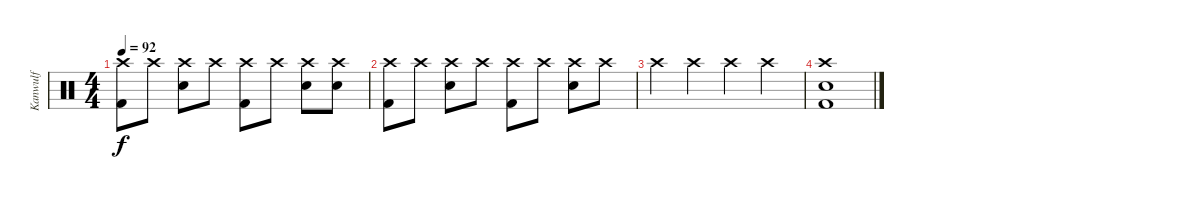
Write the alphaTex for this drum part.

\track ("Kanwulf" "Kanwulf") {instrument percussion}
\staff {score}
\articulation defaults
\ts (4 4)
\tempo 92
\clef neutral
\ks c
("Crash high (hit)" "Kick (hit) 2").8{dy f} "Crash high (hit)".8 ("Crash high (hit)" "Electric Snare (hit)").8 "Crash high (hit)".8 ("Crash high (hit)" "Kick (hit) 2").8 "Crash high (hit)".8 ("Crash high (hit)" "Electric Snare (hit)").8 ("Crash high (hit)" "Electric Snare (hit)").8 |
("Crash high (hit)" "Kick (hit) 2").8 "Crash high (hit)".8 ("Crash high (hit)" "Electric Snare (hit)").8 "Crash high (hit)".8 ("Crash high (hit)" "Kick (hit) 2").8 "Crash high (hit)".8 ("Crash high (hit)" "Electric Snare (hit)").8 "Crash high (hit)".8 |
"Crash high (hit)".4 "Crash high (hit)".4 "Crash high (hit)".4 "Crash high (hit)".4 |
("Crash high (hit)" "Electric Snare (hit)" "Kick (hit) 2").1
